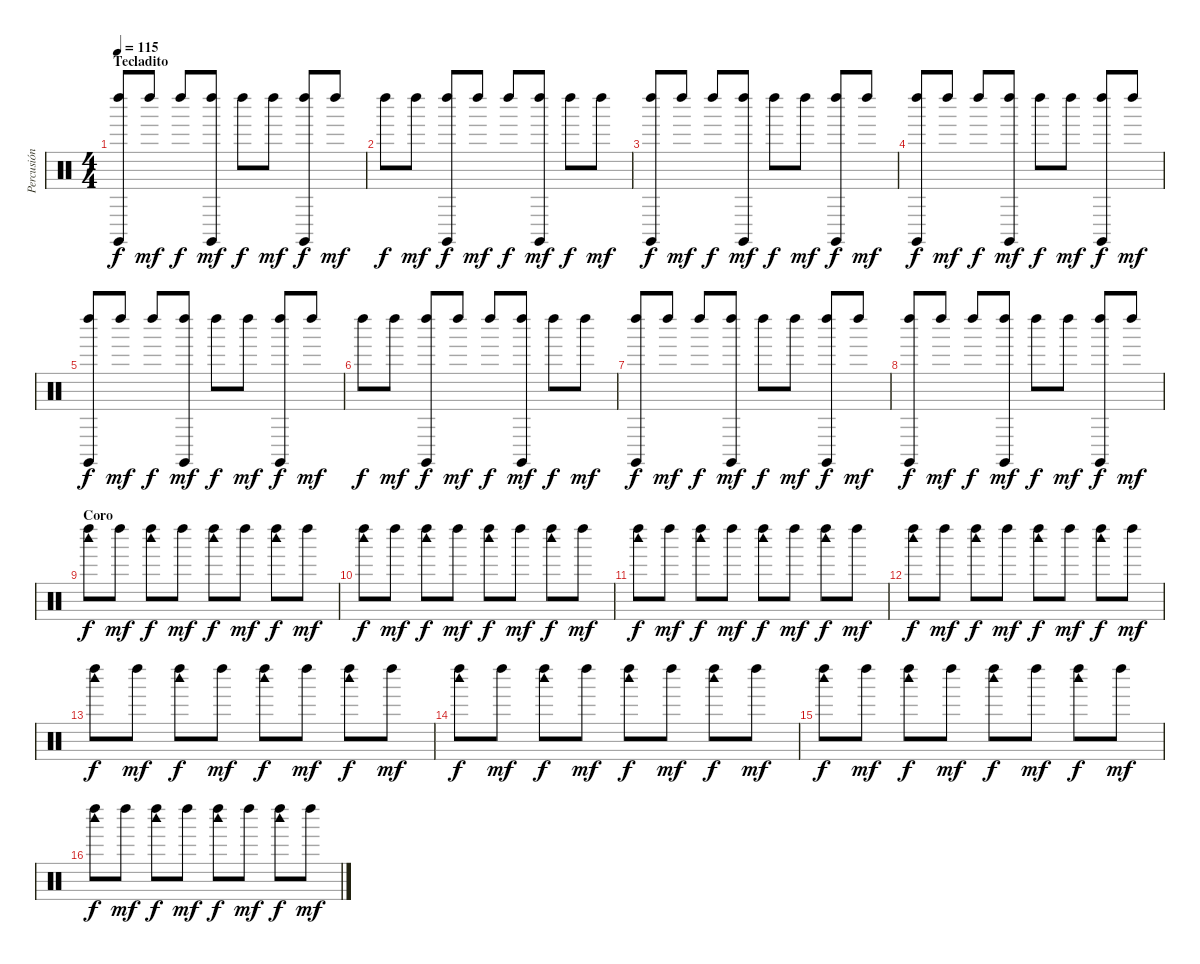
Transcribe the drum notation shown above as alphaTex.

\track ("Percusión" "Percusión") {instrument percussion}
\staff {score}
\articulation defaults
\ts (4 4)
\section ("" "Tecladito")
\tempo 115
\clef neutral
\ks c
("Claves (hit)" "Left Maraca (hit)").8{dy f} "Left Maraca (hit)".8{dy mf} "Left Maraca (hit)".8{dy f} ("Claves (hit)" "Left Maraca (hit)").8{dy mf} "Left Maraca (hit)".8{dy f} "Left Maraca (hit)".8{dy mf} ("Claves (hit)" "Left Maraca (hit)").8{dy f} "Left Maraca (hit)".8{dy mf} |
"Left Maraca (hit)".8{dy f} "Left Maraca (hit)".8{dy mf} ("Claves (hit)" "Left Maraca (hit)").8{dy f} "Left Maraca (hit)".8{dy mf} "Left Maraca (hit)".8{dy f} ("Claves (hit)" "Left Maraca (hit)").8{dy mf} "Left Maraca (hit)".8{dy f} "Left Maraca (hit)".8{dy mf} |
("Claves (hit)" "Left Maraca (hit)").8{dy f} "Left Maraca (hit)".8{dy mf} "Left Maraca (hit)".8{dy f} ("Claves (hit)" "Left Maraca (hit)").8{dy mf} "Left Maraca (hit)".8{dy f} "Left Maraca (hit)".8{dy mf} ("Claves (hit)" "Left Maraca (hit)").8{dy f} "Left Maraca (hit)".8{dy mf} |
("Claves (hit)" "Left Maraca (hit)").8{dy f} "Left Maraca (hit)".8{dy mf} "Left Maraca (hit)".8{dy f} ("Claves (hit)" "Left Maraca (hit)").8{dy mf} "Left Maraca (hit)".8{dy f} "Left Maraca (hit)".8{dy mf} ("Claves (hit)" "Left Maraca (hit)").8{dy f} "Left Maraca (hit)".8{dy mf} |
("Claves (hit)" "Left Maraca (hit)").8{dy f} "Left Maraca (hit)".8{dy mf} "Left Maraca (hit)".8{dy f} ("Claves (hit)" "Left Maraca (hit)").8{dy mf} "Left Maraca (hit)".8{dy f} "Left Maraca (hit)".8{dy mf} ("Claves (hit)" "Left Maraca (hit)").8{dy f} "Left Maraca (hit)".8{dy mf} |
"Left Maraca (hit)".8{dy f} "Left Maraca (hit)".8{dy mf} ("Claves (hit)" "Left Maraca (hit)").8{dy f} "Left Maraca (hit)".8{dy mf} "Left Maraca (hit)".8{dy f} ("Claves (hit)" "Left Maraca (hit)").8{dy mf} "Left Maraca (hit)".8{dy f} "Left Maraca (hit)".8{dy mf} |
("Claves (hit)" "Left Maraca (hit)").8{dy f} "Left Maraca (hit)".8{dy mf} "Left Maraca (hit)".8{dy f} ("Claves (hit)" "Left Maraca (hit)").8{dy mf} "Left Maraca (hit)".8{dy f} "Left Maraca (hit)".8{dy mf} ("Claves (hit)" "Left Maraca (hit)").8{dy f} "Left Maraca (hit)".8{dy mf} |
("Claves (hit)" "Left Maraca (hit)").8{dy f} "Left Maraca (hit)".8{dy mf} "Left Maraca (hit)".8{dy f} ("Claves (hit)" "Left Maraca (hit)").8{dy mf} "Left Maraca (hit)".8{dy f} "Left Maraca (hit)".8{dy mf} ("Claves (hit)" "Left Maraca (hit)").8{dy f} "Left Maraca (hit)".8{dy mf} |
\section ("" "Coro")
("Woodblock high (hit)" "Left Maraca (hit)").8{dy f} "Left Maraca (hit)".8{dy mf} ("Woodblock high (hit)" "Left Maraca (hit)").8{dy f} "Left Maraca (hit)".8{dy mf} ("Woodblock high (hit)" "Left Maraca (hit)").8{dy f} "Left Maraca (hit)".8{dy mf} ("Woodblock high (hit)" "Left Maraca (hit)").8{dy f} "Left Maraca (hit)".8{dy mf} |
("Woodblock high (hit)" "Left Maraca (hit)").8{dy f} "Left Maraca (hit)".8{dy mf} ("Woodblock high (hit)" "Left Maraca (hit)").8{dy f} "Left Maraca (hit)".8{dy mf} ("Woodblock high (hit)" "Left Maraca (hit)").8{dy f} "Left Maraca (hit)".8{dy mf} ("Woodblock high (hit)" "Left Maraca (hit)").8{dy f} "Left Maraca (hit)".8{dy mf} |
("Woodblock high (hit)" "Left Maraca (hit)").8{dy f} "Left Maraca (hit)".8{dy mf} ("Woodblock high (hit)" "Left Maraca (hit)").8{dy f} "Left Maraca (hit)".8{dy mf} ("Woodblock high (hit)" "Left Maraca (hit)").8{dy f} "Left Maraca (hit)".8{dy mf} ("Woodblock high (hit)" "Left Maraca (hit)").8{dy f} "Left Maraca (hit)".8{dy mf} |
("Woodblock high (hit)" "Left Maraca (hit)").8{dy f} "Left Maraca (hit)".8{dy mf} ("Woodblock high (hit)" "Left Maraca (hit)").8{dy f} "Left Maraca (hit)".8{dy mf} ("Woodblock high (hit)" "Left Maraca (hit)").8{dy f} "Left Maraca (hit)".8{dy mf} ("Woodblock high (hit)" "Left Maraca (hit)").8{dy f} "Left Maraca (hit)".8{dy mf} |
("Woodblock high (hit)" "Left Maraca (hit)").8{dy f} "Left Maraca (hit)".8{dy mf} ("Woodblock high (hit)" "Left Maraca (hit)").8{dy f} "Left Maraca (hit)".8{dy mf} ("Woodblock high (hit)" "Left Maraca (hit)").8{dy f} "Left Maraca (hit)".8{dy mf} ("Woodblock high (hit)" "Left Maraca (hit)").8{dy f} "Left Maraca (hit)".8{dy mf} |
("Woodblock high (hit)" "Left Maraca (hit)").8{dy f} "Left Maraca (hit)".8{dy mf} ("Woodblock high (hit)" "Left Maraca (hit)").8{dy f} "Left Maraca (hit)".8{dy mf} ("Woodblock high (hit)" "Left Maraca (hit)").8{dy f} "Left Maraca (hit)".8{dy mf} ("Woodblock high (hit)" "Left Maraca (hit)").8{dy f} "Left Maraca (hit)".8{dy mf} |
("Woodblock high (hit)" "Left Maraca (hit)").8{dy f} "Left Maraca (hit)".8{dy mf} ("Woodblock high (hit)" "Left Maraca (hit)").8{dy f} "Left Maraca (hit)".8{dy mf} ("Woodblock high (hit)" "Left Maraca (hit)").8{dy f} "Left Maraca (hit)".8{dy mf} ("Woodblock high (hit)" "Left Maraca (hit)").8{dy f} "Left Maraca (hit)".8{dy mf} |
("Woodblock high (hit)" "Left Maraca (hit)").8{dy f} "Left Maraca (hit)".8{dy mf} ("Woodblock high (hit)" "Left Maraca (hit)").8{dy f} "Left Maraca (hit)".8{dy mf} ("Woodblock high (hit)" "Left Maraca (hit)").8{dy f} "Left Maraca (hit)".8{dy mf} ("Woodblock high (hit)" "Left Maraca (hit)").8{dy f} "Left Maraca (hit)".8{dy mf}
